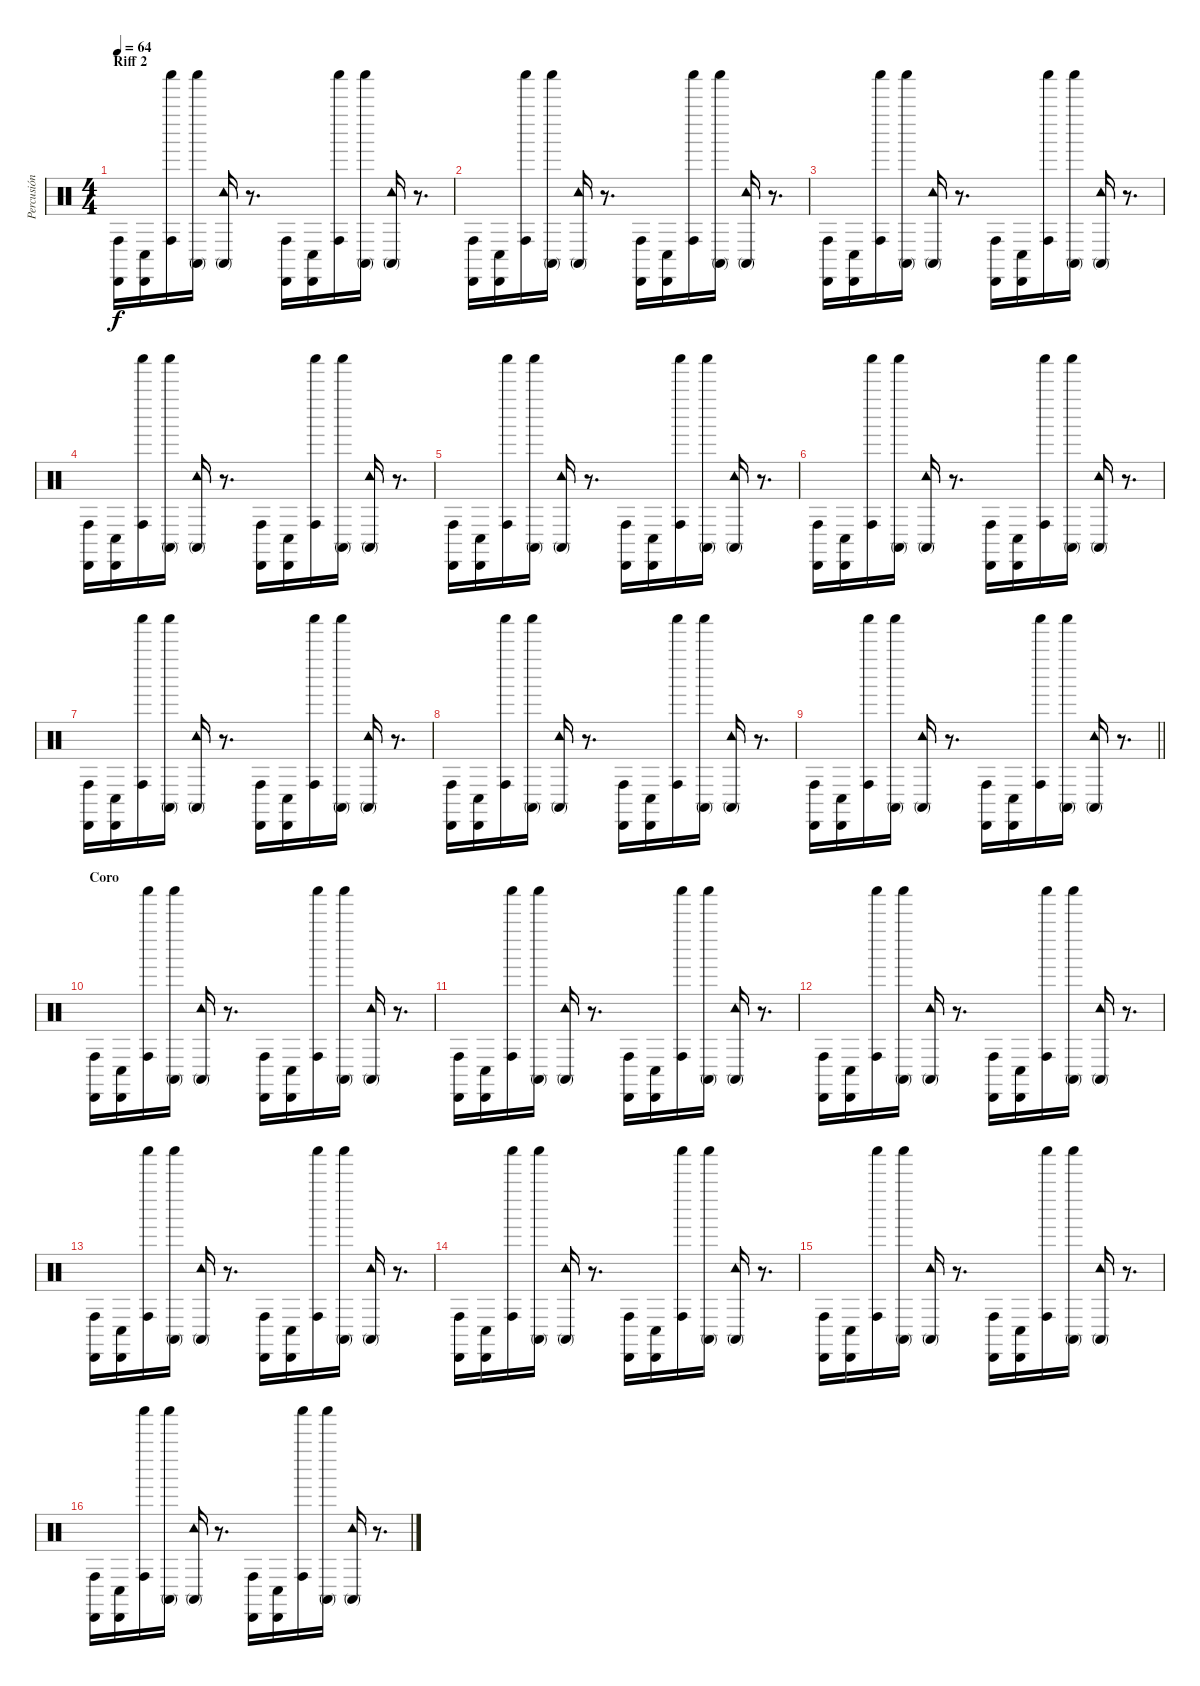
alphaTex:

\track ("Percusión" "Percusión") {instrument percussion}
\staff {score}
\articulation defaults
\ts (4 4)
\section ("" "Riff 2")
\tempo 64
\clef neutral
\ks c
("Conga high (hit)" "Cabasa (hit)").16{dy f} ("Conga low (hit)" "Cabasa (hit)").16 ("Conga high (hit)" "Shaker (hit)").16 ("Conga high (mute)" "Shaker (hit)").16 ("Conga high (mute)" "Tambourine (hit)").16 r.8{d} ("Conga high (hit)" "Cabasa (hit)").16 ("Conga low (hit)" "Cabasa (hit)").16 ("Conga high (hit)" "Shaker (hit)").16 ("Conga high (mute)" "Shaker (hit)").16 ("Conga high (mute)" "Tambourine (hit)").16 r.8{d} |
("Conga high (hit)" "Cabasa (hit)").16 ("Conga low (hit)" "Cabasa (hit)").16 ("Conga high (hit)" "Shaker (hit)").16 ("Conga high (mute)" "Shaker (hit)").16 ("Conga high (mute)" "Tambourine (hit)").16 r.8{d} ("Conga high (hit)" "Cabasa (hit)").16 ("Conga low (hit)" "Cabasa (hit)").16 ("Conga high (hit)" "Shaker (hit)").16 ("Conga high (mute)" "Shaker (hit)").16 ("Conga high (mute)" "Tambourine (hit)").16 r.8{d} |
("Conga high (hit)" "Cabasa (hit)").16 ("Conga low (hit)" "Cabasa (hit)").16 ("Conga high (hit)" "Shaker (hit)").16 ("Conga high (mute)" "Shaker (hit)").16 ("Conga high (mute)" "Tambourine (hit)").16 r.8{d} ("Conga high (hit)" "Cabasa (hit)").16 ("Conga low (hit)" "Cabasa (hit)").16 ("Conga high (hit)" "Shaker (hit)").16 ("Conga high (mute)" "Shaker (hit)").16 ("Conga high (mute)" "Tambourine (hit)").16 r.8{d} |
("Conga high (hit)" "Cabasa (hit)").16 ("Conga low (hit)" "Cabasa (hit)").16 ("Conga high (hit)" "Shaker (hit)").16 ("Conga high (mute)" "Shaker (hit)").16 ("Conga high (mute)" "Tambourine (hit)").16 r.8{d} ("Conga high (hit)" "Cabasa (hit)").16 ("Conga low (hit)" "Cabasa (hit)").16 ("Conga high (hit)" "Shaker (hit)").16 ("Conga high (mute)" "Shaker (hit)").16 ("Conga high (mute)" "Tambourine (hit)").16 r.8{d} |
("Conga high (hit)" "Cabasa (hit)").16 ("Conga low (hit)" "Cabasa (hit)").16 ("Conga high (hit)" "Shaker (hit)").16 ("Conga high (mute)" "Shaker (hit)").16 ("Conga high (mute)" "Tambourine (hit)").16 r.8{d} ("Conga high (hit)" "Cabasa (hit)").16 ("Conga low (hit)" "Cabasa (hit)").16 ("Conga high (hit)" "Shaker (hit)").16 ("Conga high (mute)" "Shaker (hit)").16 ("Conga high (mute)" "Tambourine (hit)").16 r.8{d} |
("Conga high (hit)" "Cabasa (hit)").16 ("Conga low (hit)" "Cabasa (hit)").16 ("Conga high (hit)" "Shaker (hit)").16 ("Conga high (mute)" "Shaker (hit)").16 ("Conga high (mute)" "Tambourine (hit)").16 r.8{d} ("Conga high (hit)" "Cabasa (hit)").16 ("Conga low (hit)" "Cabasa (hit)").16 ("Conga high (hit)" "Shaker (hit)").16 ("Conga high (mute)" "Shaker (hit)").16 ("Conga high (mute)" "Tambourine (hit)").16 r.8{d} |
("Conga high (hit)" "Cabasa (hit)").16 ("Conga low (hit)" "Cabasa (hit)").16 ("Conga high (hit)" "Shaker (hit)").16 ("Conga high (mute)" "Shaker (hit)").16 ("Conga high (mute)" "Tambourine (hit)").16 r.8{d} ("Conga high (hit)" "Cabasa (hit)").16 ("Conga low (hit)" "Cabasa (hit)").16 ("Conga high (hit)" "Shaker (hit)").16 ("Conga high (mute)" "Shaker (hit)").16 ("Conga high (mute)" "Tambourine (hit)").16 r.8{d} |
("Conga high (hit)" "Cabasa (hit)").16 ("Conga low (hit)" "Cabasa (hit)").16 ("Conga high (hit)" "Shaker (hit)").16 ("Conga high (mute)" "Shaker (hit)").16 ("Conga high (mute)" "Tambourine (hit)").16 r.8{d} ("Conga high (hit)" "Cabasa (hit)").16 ("Conga low (hit)" "Cabasa (hit)").16 ("Conga high (hit)" "Shaker (hit)").16 ("Conga high (mute)" "Shaker (hit)").16 ("Conga high (mute)" "Tambourine (hit)").16 r.8{d} |
\barLineRight lightlight
("Conga high (hit)" "Cabasa (hit)").16 ("Conga low (hit)" "Cabasa (hit)").16 ("Conga high (hit)" "Shaker (hit)").16 ("Conga high (mute)" "Shaker (hit)").16 ("Conga high (mute)" "Tambourine (hit)").16 r.8{d} ("Conga high (hit)" "Cabasa (hit)").16 ("Conga low (hit)" "Cabasa (hit)").16 ("Conga high (hit)" "Shaker (hit)").16 ("Conga high (mute)" "Shaker (hit)").16 ("Conga high (mute)" "Tambourine (hit)").16 r.8{d} |
\section ("" "Coro")
("Conga high (hit)" "Cabasa (hit)").16 ("Conga low (hit)" "Cabasa (hit)").16 ("Conga high (hit)" "Shaker (hit)").16 ("Conga high (mute)" "Shaker (hit)").16 ("Conga high (mute)" "Tambourine (hit)").16 r.8{d} ("Conga high (hit)" "Cabasa (hit)").16 ("Conga low (hit)" "Cabasa (hit)").16 ("Conga high (hit)" "Shaker (hit)").16 ("Conga high (mute)" "Shaker (hit)").16 ("Conga high (mute)" "Tambourine (hit)").16 r.8{d} |
("Conga high (hit)" "Cabasa (hit)").16 ("Conga low (hit)" "Cabasa (hit)").16 ("Conga high (hit)" "Shaker (hit)").16 ("Conga high (mute)" "Shaker (hit)").16 ("Conga high (mute)" "Tambourine (hit)").16 r.8{d} ("Conga high (hit)" "Cabasa (hit)").16 ("Conga low (hit)" "Cabasa (hit)").16 ("Conga high (hit)" "Shaker (hit)").16 ("Conga high (mute)" "Shaker (hit)").16 ("Conga high (mute)" "Tambourine (hit)").16 r.8{d} |
("Conga high (hit)" "Cabasa (hit)").16 ("Conga low (hit)" "Cabasa (hit)").16 ("Conga high (hit)" "Shaker (hit)").16 ("Conga high (mute)" "Shaker (hit)").16 ("Conga high (mute)" "Tambourine (hit)").16 r.8{d} ("Conga high (hit)" "Cabasa (hit)").16 ("Conga low (hit)" "Cabasa (hit)").16 ("Conga high (hit)" "Shaker (hit)").16 ("Conga high (mute)" "Shaker (hit)").16 ("Conga high (mute)" "Tambourine (hit)").16 r.8{d} |
("Conga high (hit)" "Cabasa (hit)").16 ("Conga low (hit)" "Cabasa (hit)").16 ("Conga high (hit)" "Shaker (hit)").16 ("Conga high (mute)" "Shaker (hit)").16 ("Conga high (mute)" "Tambourine (hit)").16 r.8{d} ("Conga high (hit)" "Cabasa (hit)").16 ("Conga low (hit)" "Cabasa (hit)").16 ("Conga high (hit)" "Shaker (hit)").16 ("Conga high (mute)" "Shaker (hit)").16 ("Conga high (mute)" "Tambourine (hit)").16 r.8{d} |
("Conga high (hit)" "Cabasa (hit)").16 ("Conga low (hit)" "Cabasa (hit)").16 ("Conga high (hit)" "Shaker (hit)").16 ("Conga high (mute)" "Shaker (hit)").16 ("Conga high (mute)" "Tambourine (hit)").16 r.8{d} ("Conga high (hit)" "Cabasa (hit)").16 ("Conga low (hit)" "Cabasa (hit)").16 ("Conga high (hit)" "Shaker (hit)").16 ("Conga high (mute)" "Shaker (hit)").16 ("Conga high (mute)" "Tambourine (hit)").16 r.8{d} |
("Conga high (hit)" "Cabasa (hit)").16 ("Conga low (hit)" "Cabasa (hit)").16 ("Conga high (hit)" "Shaker (hit)").16 ("Conga high (mute)" "Shaker (hit)").16 ("Conga high (mute)" "Tambourine (hit)").16 r.8{d} ("Conga high (hit)" "Cabasa (hit)").16 ("Conga low (hit)" "Cabasa (hit)").16 ("Conga high (hit)" "Shaker (hit)").16 ("Conga high (mute)" "Shaker (hit)").16 ("Conga high (mute)" "Tambourine (hit)").16 r.8{d} |
("Conga high (hit)" "Cabasa (hit)").16 ("Conga low (hit)" "Cabasa (hit)").16 ("Conga high (hit)" "Shaker (hit)").16 ("Conga high (mute)" "Shaker (hit)").16 ("Conga high (mute)" "Tambourine (hit)").16 r.8{d} ("Conga high (hit)" "Cabasa (hit)").16 ("Conga low (hit)" "Cabasa (hit)").16 ("Conga high (hit)" "Shaker (hit)").16 ("Conga high (mute)" "Shaker (hit)").16 ("Conga high (mute)" "Tambourine (hit)").16 r.8{d}
